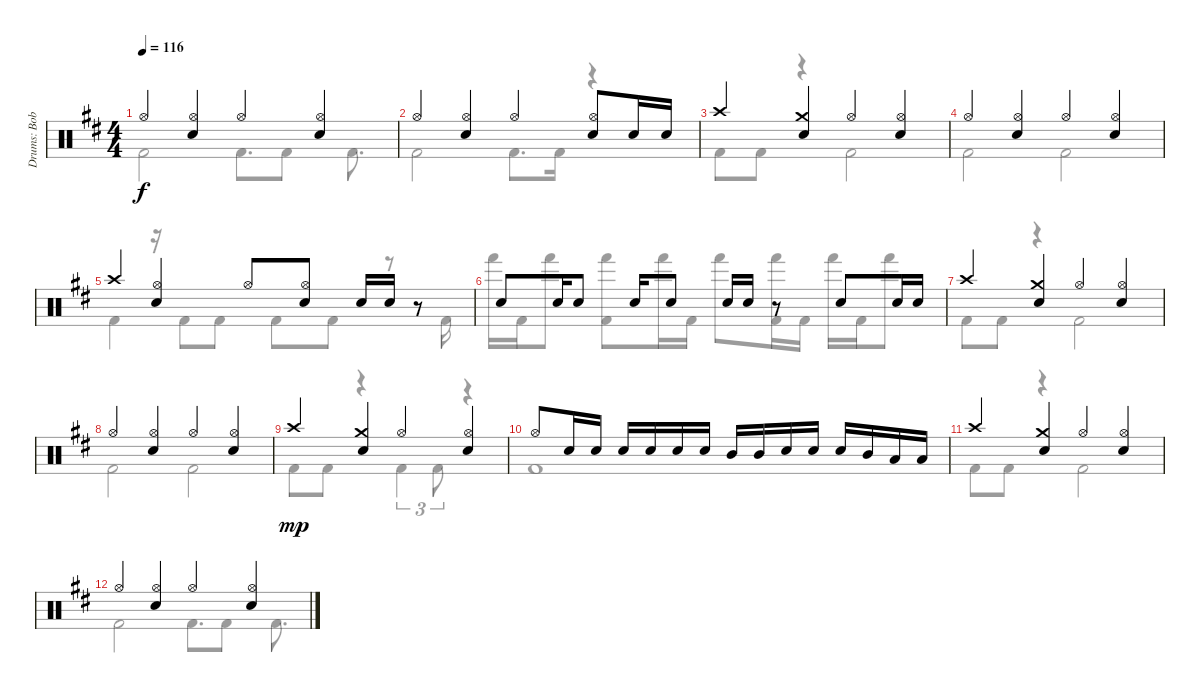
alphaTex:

\track ("Drums: Bobby" "Drums: Bob") {instrument percussion}
\staff {score}
\articulation defaults
\voice
\ts (4 4)
\tempo 116
\clef neutral
\ks d "Hi-Hat (open)".4{dy f}
("Hi-Hat (open)" "Snare (hit) 2").4 "Hi-Hat (open)".4 ("Hi-Hat (open)" "Snare (hit) 2").4 |
"Hi-Hat (open)".4 ("Hi-Hat (open)" "Snare (hit) 2").4 "Hi-Hat (open)".4 ("Hi-Hat (open)" "Snare (hit) 2").8 "Snare (hit) 2".16 "Snare (hit) 2".16 |
"Crash high (hit)".4 ("Crash medium (hit)" "Snare (hit) 2").4 "Hi-Hat (open)".4 ("Hi-Hat (open)" "Snare (hit) 2").4 |
"Hi-Hat (open)".4 ("Hi-Hat (open)" "Snare (hit) 2").4 "Hi-Hat (open)".4 ("Hi-Hat (open)" "Snare (hit) 2").4 |
"Crash high (hit)".4 ("Hi-Hat (open)" "Snare (hit) 2").4 "Hi-Hat (open)".8 ("Hi-Hat (open)" "Snare (hit) 2").8 "Snare (hit) 2".16 "Snare (hit) 2".16 r.8 |
"Snare (hit) 2".8 "Snare (hit) 2".16 "Snare (hit) 2".8 "Snare (hit) 2".16 "Snare (hit) 2".8 "Snare (hit) 2".16 "Snare (hit) 2".16 r.8 "Snare (hit) 2".8 "Snare (hit) 2".16 "Snare (hit) 2".16 |
"Crash high (hit)".4 ("Crash medium (hit)" "Snare (hit) 2").4 "Hi-Hat (open)".4 ("Hi-Hat (open)" "Snare (hit) 2").4 |
"Hi-Hat (open)".4 ("Hi-Hat (open)" "Snare (hit) 2").4 "Hi-Hat (open)".4 ("Hi-Hat (open)" "Snare (hit) 2").4 |
"Crash high (hit)".4{dy mp volume 0} ("Crash medium (hit)" "Snare (hit) 2").4 "Hi-Hat (open)".4 ("Hi-Hat (open)" "Snare (hit) 2").4 |
"Hi-Hat (open)".8 "Snare (hit) 2".16 "Snare (hit) 2".16 "Snare (hit) 2".16 "Snare (hit) 2".16 "Snare (hit) 2".16 "Snare (hit) 2".16 "Mid Tom (hit)".16 "Mid Tom (hit)".16 "Snare (hit) 2".16 "Snare (hit) 2".16 "Snare (hit) 2".16 "Mid Tom (hit)".16 "Low Tom (hit)".16 "Low Tom (hit)".16 |
"Crash high (hit)".4 ("Crash medium (hit)" "Snare (hit) 2").4 "Hi-Hat (open)".4 ("Hi-Hat (open)" "Snare (hit) 2").4 |
"Hi-Hat (open)".4 ("Hi-Hat (open)" "Snare (hit) 2").4 "Hi-Hat (open)".4 ("Hi-Hat (open)" "Snare (hit) 2").4
\voice
\clef neutral
\ottava regular
\simile none
\ks d "Kick (hit) 2".2{dy f} "Kick (hit) 2".8{d} "Kick (hit) 2".8 "Kick (hit) 2".8{d}
|
"Kick (hit) 2".2 "Kick (hit) 2".8{d} "Kick (hit) 2".16 r.4 |
"Kick (hit) 2".8 "Kick (hit) 2".8 r.4 "Kick (hit) 2".2 |
"Kick (hit) 2".2 "Kick (hit) 2".2 |
"Kick (hit) 2".4 r.16 "Kick (hit) 2".8 "Kick (hit) 2".8 "Kick (hit) 2".8 "Kick (hit) 2".8 r.8 "Kick (hit) 2".16 |
"Hand (hit)".16 "Kick (hit) 2".16 "Hand (hit)".8 ("Kick (hit) 2" "Hand (hit)").8 "Hand (hit)".16 "Kick (hit) 2".16 "Hand (hit)".8 ("Kick (hit) 2" "Hand (hit)").16 "Kick (hit) 2".16 "Hand (hit)".16 "Kick (hit) 2".16 "Hand (hit)".8 |
"Kick (hit) 2".8 "Kick (hit) 2".8 r.4 "Kick (hit) 2".2 |
"Kick (hit) 2".2 "Kick (hit) 2".2 |
"Kick (hit) 2".8{dy mp} "Kick (hit) 2".8 r.4 "Kick (hit) 2".4{tu (3 2)} "Kick (hit) 2".8{tu (3 2)} r.4 |
"Kick (hit) 2".1 |
"Kick (hit) 2".8 "Kick (hit) 2".8 r.4 "Kick (hit) 2".2 |
"Kick (hit) 2".2 "Kick (hit) 2".8{d} "Kick (hit) 2".8 "Kick (hit) 2".8{d}
